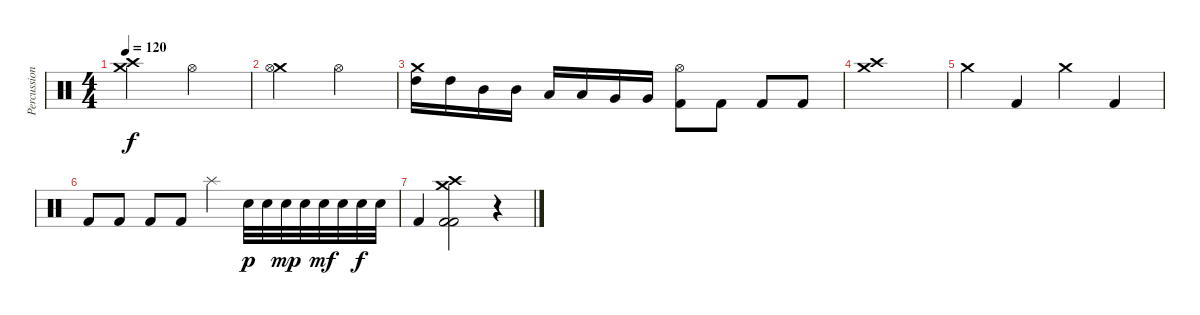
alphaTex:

\track ("Percussions" "Percussion") {instrument percussion}
\staff {score}
\articulation defaults
\ts (4 4)
\tempo 120
\clef neutral
\ks c
("Crash medium (hit)" "Crash high (hit)").2{dy f} "Hi-Hat (open)".2 |
("Crash medium (hit)" "Hi-Hat (open)").2 "Hi-Hat (open)".2 |
("Crash medium (hit)" "High Tom (hit)").16 "High Tom (hit)".16 "Mid Tom (hit)".16 "Mid Tom (hit)".16 "Low Tom (hit)".16 "Low Tom (hit)".16 "Very Low Tom (hit)".16 "Very Low Tom (hit)".16 ("Hi-Hat (open)" "Kick (hit) 2").8 "Kick (hit) 2".8 "Kick (hit) 2".8 "Kick (hit) 2".8 |
("Crash medium (hit)" "Crash high (hit)").1 |
"Crash medium (hit)".4 "Kick (hit) 2".4 "Crash medium (hit)".4 "Kick (hit) 2".4 |
"Kick (hit) 2".8 "Kick (hit) 2".8 "Kick (hit) 2".8 "Kick (hit) 2".8 "Splash (hit)".4 "Electric Snare (hit)".32{dy p} "Electric Snare (hit)".32 "Electric Snare (hit)".32{dy mp} "Electric Snare (hit)".32 "Electric Snare (hit)".32{dy mf} "Electric Snare (hit)".32 "Electric Snare (hit)".32{dy f} "Electric Snare (hit)".32 |
"Kick (hit) 2".4 ("Crash medium (hit)" "Crash high (hit)" "Kick (hit) 2" "Kick (hit) 2").2 r.4
